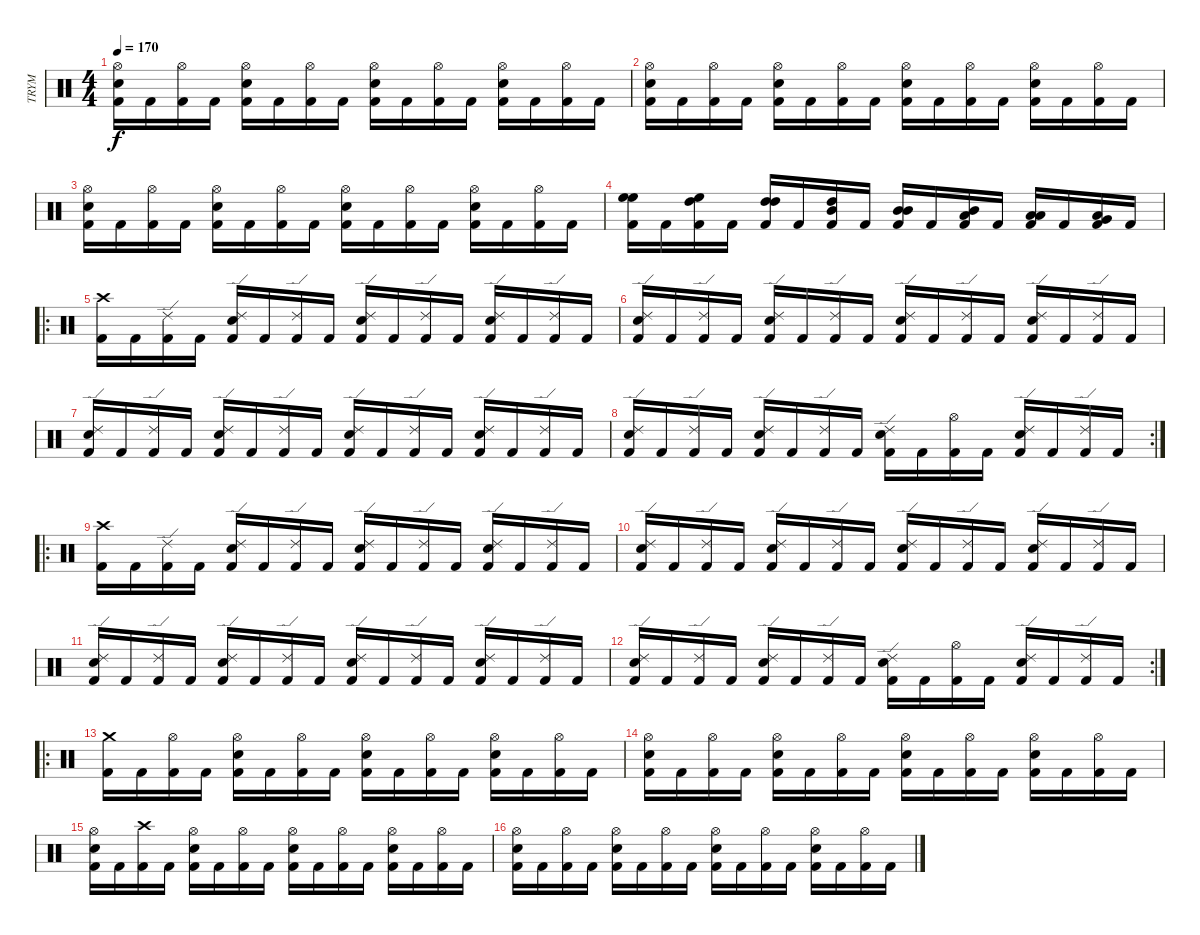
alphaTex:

\track ("TRYM" "TRYM") {instrument percussion}
\staff {score}
\articulation defaults
\ts (4 4)
\tempo 170
\clef neutral
\ks c
("Kick (hit) 2" "Hi-Hat (open)" "Electric Snare (hit)").16{dy f} "Kick (hit) 2".16 ("Kick (hit) 2" "Hi-Hat (open)").16 "Kick (hit) 2".16 ("Kick (hit) 2" "Hi-Hat (open)" "Electric Snare (hit)").16 "Kick (hit) 2".16 ("Kick (hit) 2" "Hi-Hat (open)").16 "Kick (hit) 2".16 ("Kick (hit) 2" "Hi-Hat (open)" "Electric Snare (hit)").16 "Kick (hit) 2".16 ("Kick (hit) 2" "Hi-Hat (open)").16 "Kick (hit) 2".16 ("Kick (hit) 2" "Hi-Hat (open)" "Electric Snare (hit)").16 "Kick (hit) 2".16 ("Kick (hit) 2" "Hi-Hat (open)").16 "Kick (hit) 2".16 |
("Kick (hit) 2" "Hi-Hat (open)" "Electric Snare (hit)").16 "Kick (hit) 2".16 ("Kick (hit) 2" "Hi-Hat (open)").16 "Kick (hit) 2".16 ("Kick (hit) 2" "Hi-Hat (open)" "Electric Snare (hit)").16 "Kick (hit) 2".16 ("Kick (hit) 2" "Hi-Hat (open)").16 "Kick (hit) 2".16 ("Kick (hit) 2" "Hi-Hat (open)" "Electric Snare (hit)").16 "Kick (hit) 2".16 ("Kick (hit) 2" "Hi-Hat (open)").16 "Kick (hit) 2".16 ("Kick (hit) 2" "Hi-Hat (open)" "Electric Snare (hit)").16 "Kick (hit) 2".16 ("Kick (hit) 2" "Hi-Hat (open)").16 "Kick (hit) 2".16 |
("Kick (hit) 2" "Hi-Hat (open)" "Electric Snare (hit)").16 "Kick (hit) 2".16 ("Kick (hit) 2" "Hi-Hat (open)").16 "Kick (hit) 2".16 ("Kick (hit) 2" "Hi-Hat (open)" "Electric Snare (hit)").16 "Kick (hit) 2".16 ("Kick (hit) 2" "Hi-Hat (open)").16 "Kick (hit) 2".16 ("Kick (hit) 2" "Hi-Hat (open)" "Electric Snare (hit)").16 "Kick (hit) 2".16 ("Kick (hit) 2" "Hi-Hat (open)").16 "Kick (hit) 2".16 ("Kick (hit) 2" "Hi-Hat (open)" "Electric Snare (hit)").16 "Kick (hit) 2".16 ("Kick (hit) 2" "Hi-Hat (open)").16 "Kick (hit) 2".16 |
("Kick (hit) 2" "High Floor Tom (hit)" "High Floor Tom (hit)").16 "Kick (hit) 2".16 ("Kick (hit) 2" "High Tom (hit)" "High Floor Tom (hit)").16 "Kick (hit) 2".16 ("Kick (hit) 2" "High Tom (hit)" "High Tom (hit)").16 "Kick (hit) 2".16 ("Kick (hit) 2" "Mid Tom (hit)" "High Tom (hit)").16 "Kick (hit) 2".16 ("Kick (hit) 2" "Mid Tom (hit)" "Mid Tom (hit)").16 "Kick (hit) 2".16 ("Kick (hit) 2" "Low Tom (hit)" "Mid Tom (hit)").16 "Kick (hit) 2".16 ("Kick (hit) 2" "Low Tom (hit)" "Low Tom (hit)").16 "Kick (hit) 2".16 ("Kick (hit) 2" "Very Low Tom (hit)" "Low Tom (hit)").16 "Kick (hit) 2".16 |
\ro
("Kick (hit) 2" "Crash high (hit)").16 "Kick (hit) 2".16 ("Kick (hit) 2" "Ride (edge) 2").16 "Kick (hit) 2".16 ("Kick (hit) 2" "Ride (edge) 2" "Electric Snare (hit)").16 "Kick (hit) 2".16 ("Kick (hit) 2" "Ride (edge) 2").16 "Kick (hit) 2".16 ("Kick (hit) 2" "Ride (edge) 2" "Electric Snare (hit)").16 "Kick (hit) 2".16 ("Kick (hit) 2" "Ride (edge) 2").16 "Kick (hit) 2".16 ("Kick (hit) 2" "Ride (edge) 2" "Electric Snare (hit)").16 "Kick (hit) 2".16 ("Kick (hit) 2" "Ride (edge) 2").16 "Kick (hit) 2".16 |
("Kick (hit) 2" "Ride (edge) 2" "Electric Snare (hit)").16 "Kick (hit) 2".16 ("Kick (hit) 2" "Ride (edge) 2").16 "Kick (hit) 2".16 ("Kick (hit) 2" "Ride (edge) 2" "Electric Snare (hit)").16 "Kick (hit) 2".16 ("Kick (hit) 2" "Ride (edge) 2").16 "Kick (hit) 2".16 ("Kick (hit) 2" "Ride (edge) 2" "Electric Snare (hit)").16 "Kick (hit) 2".16 ("Kick (hit) 2" "Ride (edge) 2").16 "Kick (hit) 2".16 ("Kick (hit) 2" "Ride (edge) 2" "Electric Snare (hit)").16 "Kick (hit) 2".16 ("Kick (hit) 2" "Ride (edge) 2").16 "Kick (hit) 2".16 |
("Kick (hit) 2" "Ride (edge) 2" "Electric Snare (hit)").16 "Kick (hit) 2".16 ("Kick (hit) 2" "Ride (edge) 2").16 "Kick (hit) 2".16 ("Kick (hit) 2" "Ride (edge) 2" "Electric Snare (hit)").16 "Kick (hit) 2".16 ("Kick (hit) 2" "Ride (edge) 2").16 "Kick (hit) 2".16 ("Kick (hit) 2" "Ride (edge) 2" "Electric Snare (hit)").16 "Kick (hit) 2".16 ("Kick (hit) 2" "Ride (edge) 2").16 "Kick (hit) 2".16 ("Kick (hit) 2" "Ride (edge) 2" "Electric Snare (hit)").16 "Kick (hit) 2".16 ("Kick (hit) 2" "Ride (edge) 2").16 "Kick (hit) 2".16 |
\rc 2
("Kick (hit) 2" "Ride (edge) 2" "Electric Snare (hit)").16 "Kick (hit) 2".16 ("Kick (hit) 2" "Ride (edge) 2").16 "Kick (hit) 2".16 ("Kick (hit) 2" "Ride (edge) 2" "Electric Snare (hit)").16 "Kick (hit) 2".16 ("Kick (hit) 2" "Ride (edge) 2").16 "Kick (hit) 2".16 ("Kick (hit) 2" "Ride (edge) 2" "Electric Snare (hit)").16 "Kick (hit) 2".16 ("Kick (hit) 2" "Hi-Hat (open)").16 "Kick (hit) 2".16 ("Kick (hit) 2" "Ride (edge) 2" "Electric Snare (hit)").16 "Kick (hit) 2".16 ("Kick (hit) 2" "Ride (edge) 2").16 "Kick (hit) 2".16 |
\ro
("Kick (hit) 2" "Crash high (hit)").16 "Kick (hit) 2".16 ("Kick (hit) 2" "Ride (edge) 2").16 "Kick (hit) 2".16 ("Kick (hit) 2" "Ride (edge) 2" "Electric Snare (hit)").16 "Kick (hit) 2".16 ("Kick (hit) 2" "Ride (edge) 2").16 "Kick (hit) 2".16 ("Kick (hit) 2" "Ride (edge) 2" "Electric Snare (hit)").16 "Kick (hit) 2".16 ("Kick (hit) 2" "Ride (edge) 2").16 "Kick (hit) 2".16 ("Kick (hit) 2" "Ride (edge) 2" "Electric Snare (hit)").16 "Kick (hit) 2".16 ("Kick (hit) 2" "Ride (edge) 2").16 "Kick (hit) 2".16 |
("Kick (hit) 2" "Ride (edge) 2" "Electric Snare (hit)").16 "Kick (hit) 2".16 ("Kick (hit) 2" "Ride (edge) 2").16 "Kick (hit) 2".16 ("Kick (hit) 2" "Ride (edge) 2" "Electric Snare (hit)").16 "Kick (hit) 2".16 ("Kick (hit) 2" "Ride (edge) 2").16 "Kick (hit) 2".16 ("Kick (hit) 2" "Ride (edge) 2" "Electric Snare (hit)").16 "Kick (hit) 2".16 ("Kick (hit) 2" "Ride (edge) 2").16 "Kick (hit) 2".16 ("Kick (hit) 2" "Ride (edge) 2" "Electric Snare (hit)").16 "Kick (hit) 2".16 ("Kick (hit) 2" "Ride (edge) 2").16 "Kick (hit) 2".16 |
("Kick (hit) 2" "Ride (edge) 2" "Electric Snare (hit)").16 "Kick (hit) 2".16 ("Kick (hit) 2" "Ride (edge) 2").16 "Kick (hit) 2".16 ("Kick (hit) 2" "Ride (edge) 2" "Electric Snare (hit)").16 "Kick (hit) 2".16 ("Kick (hit) 2" "Ride (edge) 2").16 "Kick (hit) 2".16 ("Kick (hit) 2" "Ride (edge) 2" "Electric Snare (hit)").16 "Kick (hit) 2".16 ("Kick (hit) 2" "Ride (edge) 2").16 "Kick (hit) 2".16 ("Kick (hit) 2" "Ride (edge) 2" "Electric Snare (hit)").16 "Kick (hit) 2".16 ("Kick (hit) 2" "Ride (edge) 2").16 "Kick (hit) 2".16 |
\rc 2
("Kick (hit) 2" "Ride (edge) 2" "Electric Snare (hit)").16 "Kick (hit) 2".16 ("Kick (hit) 2" "Ride (edge) 2").16 "Kick (hit) 2".16 ("Kick (hit) 2" "Ride (edge) 2" "Electric Snare (hit)").16 "Kick (hit) 2".16 ("Kick (hit) 2" "Ride (edge) 2").16 "Kick (hit) 2".16 ("Kick (hit) 2" "Ride (edge) 2" "Electric Snare (hit)").16 "Kick (hit) 2".16 ("Kick (hit) 2" "Hi-Hat (open)").16 "Kick (hit) 2".16 ("Kick (hit) 2" "Ride (edge) 2" "Electric Snare (hit)").16 "Kick (hit) 2".16 ("Kick (hit) 2" "Ride (edge) 2").16 "Kick (hit) 2".16 |
\ro
("Kick (hit) 2" "Crash medium (hit)").16 "Kick (hit) 2".16 ("Kick (hit) 2" "Hi-Hat (open)").16 "Kick (hit) 2".16 ("Kick (hit) 2" "Hi-Hat (open)" "Electric Snare (hit)").16 "Kick (hit) 2".16 ("Kick (hit) 2" "Hi-Hat (open)").16 "Kick (hit) 2".16 ("Kick (hit) 2" "Hi-Hat (open)" "Electric Snare (hit)").16 "Kick (hit) 2".16 ("Kick (hit) 2" "Hi-Hat (open)").16 "Kick (hit) 2".16 ("Kick (hit) 2" "Hi-Hat (open)" "Electric Snare (hit)").16 "Kick (hit) 2".16 ("Kick (hit) 2" "Hi-Hat (open)").16 "Kick (hit) 2".16 |
("Kick (hit) 2" "Hi-Hat (open)" "Electric Snare (hit)").16 "Kick (hit) 2".16 ("Kick (hit) 2" "Hi-Hat (open)").16 "Kick (hit) 2".16 ("Kick (hit) 2" "Hi-Hat (open)" "Electric Snare (hit)").16 "Kick (hit) 2".16 ("Kick (hit) 2" "Hi-Hat (open)").16 "Kick (hit) 2".16 ("Kick (hit) 2" "Hi-Hat (open)" "Electric Snare (hit)").16 "Kick (hit) 2".16 ("Kick (hit) 2" "Hi-Hat (open)").16 "Kick (hit) 2".16 ("Kick (hit) 2" "Hi-Hat (open)" "Electric Snare (hit)").16 "Kick (hit) 2".16 ("Kick (hit) 2" "Hi-Hat (open)").16 "Kick (hit) 2".16 |
("Kick (hit) 2" "Hi-Hat (open)" "Electric Snare (hit)").16 "Kick (hit) 2".16 ("Kick (hit) 2" "Crash high (hit)").16 "Kick (hit) 2".16 ("Kick (hit) 2" "Hi-Hat (open)" "Electric Snare (hit)").16 "Kick (hit) 2".16 ("Kick (hit) 2" "Hi-Hat (open)").16 "Kick (hit) 2".16 ("Kick (hit) 2" "Hi-Hat (open)" "Electric Snare (hit)").16 "Kick (hit) 2".16 ("Kick (hit) 2" "Hi-Hat (open)").16 "Kick (hit) 2".16 ("Kick (hit) 2" "Hi-Hat (open)" "Electric Snare (hit)").16 "Kick (hit) 2".16 ("Kick (hit) 2" "Hi-Hat (open)").16 "Kick (hit) 2".16 |
("Kick (hit) 2" "Hi-Hat (open)" "Electric Snare (hit)").16 "Kick (hit) 2".16 ("Kick (hit) 2" "Hi-Hat (open)").16 "Kick (hit) 2".16 ("Kick (hit) 2" "Hi-Hat (open)" "Electric Snare (hit)").16 "Kick (hit) 2".16 ("Kick (hit) 2" "Hi-Hat (open)").16 "Kick (hit) 2".16 ("Kick (hit) 2" "Hi-Hat (open)" "Electric Snare (hit)").16 "Kick (hit) 2".16 ("Kick (hit) 2" "Hi-Hat (open)").16 "Kick (hit) 2".16 ("Kick (hit) 2" "Hi-Hat (open)" "Electric Snare (hit)").16 "Kick (hit) 2".16 ("Kick (hit) 2" "Hi-Hat (open)").16 "Kick (hit) 2".16
